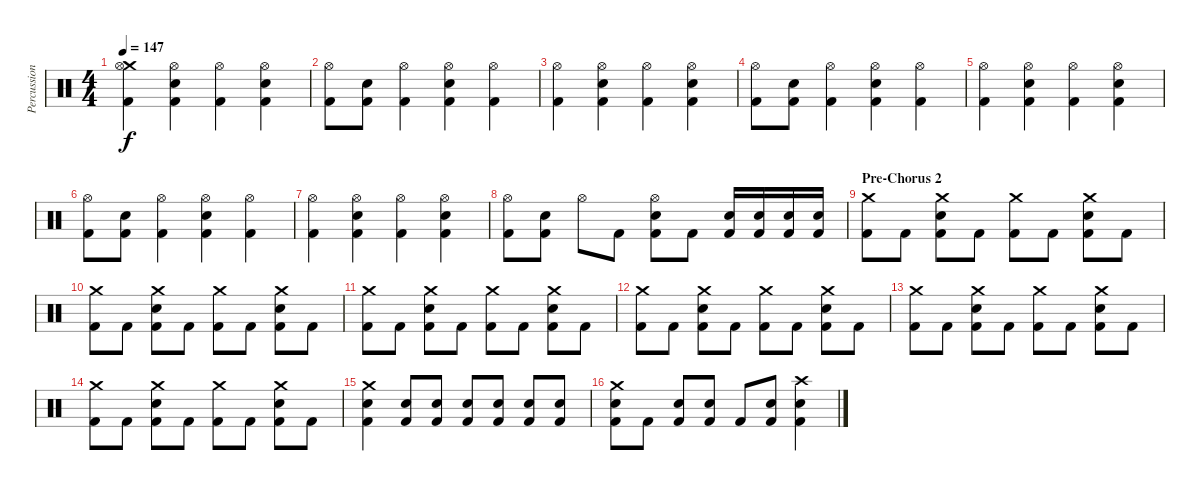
\track ("Percussions" "Percussion") {instrument percussion}
\staff {score}
\articulation defaults
\ts (4 4)
\tempo 147
\clef neutral
\ks c
("Crash medium (hit)" "Hi-Hat (open)" "Kick (hit) 2").4{dy f} ("Hi-Hat (open)" "Electric Snare (hit)" "Kick (hit) 2").4 ("Hi-Hat (open)" "Kick (hit) 2").4 ("Hi-Hat (open)" "Electric Snare (hit)" "Kick (hit) 2").4 |
("Hi-Hat (open)" "Kick (hit) 2").8 ("Electric Snare (hit)" "Kick (hit) 2").8 ("Hi-Hat (open)" "Kick (hit) 2").4 ("Hi-Hat (open)" "Electric Snare (hit)" "Kick (hit) 2").4 ("Hi-Hat (open)" "Kick (hit) 2").4 |
("Hi-Hat (open)" "Kick (hit) 2").4 ("Hi-Hat (open)" "Electric Snare (hit)" "Kick (hit) 2").4 ("Hi-Hat (open)" "Kick (hit) 2").4 ("Hi-Hat (open)" "Electric Snare (hit)" "Kick (hit) 2").4 |
("Hi-Hat (open)" "Kick (hit) 2").8 ("Electric Snare (hit)" "Kick (hit) 2").8 ("Hi-Hat (open)" "Kick (hit) 2").4 ("Hi-Hat (open)" "Electric Snare (hit)" "Kick (hit) 2").4 ("Hi-Hat (open)" "Kick (hit) 2").4 |
("Hi-Hat (open)" "Kick (hit) 2").4 ("Hi-Hat (open)" "Electric Snare (hit)" "Kick (hit) 2").4 ("Hi-Hat (open)" "Kick (hit) 2").4 ("Hi-Hat (open)" "Electric Snare (hit)" "Kick (hit) 2").4 |
("Hi-Hat (open)" "Kick (hit) 2").8 ("Electric Snare (hit)" "Kick (hit) 2").8 ("Hi-Hat (open)" "Kick (hit) 2").4 ("Hi-Hat (open)" "Electric Snare (hit)" "Kick (hit) 2").4 ("Hi-Hat (open)" "Kick (hit) 2").4 |
("Hi-Hat (open)" "Kick (hit) 2").4 ("Hi-Hat (open)" "Electric Snare (hit)" "Kick (hit) 2").4 ("Hi-Hat (open)" "Kick (hit) 2").4 ("Hi-Hat (open)" "Electric Snare (hit)" "Kick (hit) 2").4 |
("Hi-Hat (open)" "Kick (hit) 2").8 ("Electric Snare (hit)" "Kick (hit) 2").8 "Hi-Hat (open)".8 "Kick (hit) 2".8 ("Hi-Hat (open)" "Electric Snare (hit)" "Kick (hit) 2").8 "Kick (hit) 2".8 ("Electric Snare (hit)" "Kick (hit) 2").16 ("Electric Snare (hit)" "Kick (hit) 2").16 ("Electric Snare (hit)" "Kick (hit) 2").16 ("Electric Snare (hit)" "Kick (hit) 2").16 |
\section ("" "Pre-Chorus 2")
("Crash medium (hit)" "Kick (hit) 2").8 "Kick (hit) 2".8 ("Crash medium (hit)" "Electric Snare (hit)" "Kick (hit) 2").8 "Kick (hit) 2".8 ("Crash medium (hit)" "Kick (hit) 2").8 "Kick (hit) 2".8 ("Crash medium (hit)" "Electric Snare (hit)" "Kick (hit) 2").8 "Kick (hit) 2".8 |
("Crash medium (hit)" "Kick (hit) 2").8 "Kick (hit) 2".8 ("Crash medium (hit)" "Electric Snare (hit)" "Kick (hit) 2").8 "Kick (hit) 2".8 ("Crash medium (hit)" "Kick (hit) 2").8 "Kick (hit) 2".8 ("Crash medium (hit)" "Electric Snare (hit)" "Kick (hit) 2").8 "Kick (hit) 2".8 |
("Crash medium (hit)" "Kick (hit) 2").8 "Kick (hit) 2".8 ("Crash medium (hit)" "Electric Snare (hit)" "Kick (hit) 2").8 "Kick (hit) 2".8 ("Crash medium (hit)" "Kick (hit) 2").8 "Kick (hit) 2".8 ("Crash medium (hit)" "Electric Snare (hit)" "Kick (hit) 2").8 "Kick (hit) 2".8 |
("Crash medium (hit)" "Kick (hit) 2").8 "Kick (hit) 2".8 ("Crash medium (hit)" "Electric Snare (hit)" "Kick (hit) 2").8 "Kick (hit) 2".8 ("Crash medium (hit)" "Kick (hit) 2").8 "Kick (hit) 2".8 ("Crash medium (hit)" "Electric Snare (hit)" "Kick (hit) 2").8 "Kick (hit) 2".8 |
("Crash medium (hit)" "Kick (hit) 2").8 "Kick (hit) 2".8 ("Crash medium (hit)" "Electric Snare (hit)" "Kick (hit) 2").8 "Kick (hit) 2".8 ("Crash medium (hit)" "Kick (hit) 2").8 "Kick (hit) 2".8 ("Crash medium (hit)" "Electric Snare (hit)" "Kick (hit) 2").8 "Kick (hit) 2".8 |
("Crash medium (hit)" "Kick (hit) 2").8 "Kick (hit) 2".8 ("Crash medium (hit)" "Electric Snare (hit)" "Kick (hit) 2").8 "Kick (hit) 2".8 ("Crash medium (hit)" "Kick (hit) 2").8 "Kick (hit) 2".8 ("Crash medium (hit)" "Electric Snare (hit)" "Kick (hit) 2").8 "Kick (hit) 2".8 |
("Crash medium (hit)" "Electric Snare (hit)" "Kick (hit) 2").4 ("Electric Snare (hit)" "Kick (hit) 2").8 ("Electric Snare (hit)" "Kick (hit) 2").8 ("Electric Snare (hit)" "Kick (hit) 2").8 ("Electric Snare (hit)" "Kick (hit) 2").8 ("Electric Snare (hit)" "Kick (hit) 2").8 ("Electric Snare (hit)" "Kick (hit) 2").8 |
("Crash medium (hit)" "Electric Snare (hit)" "Kick (hit) 2").8 "Kick (hit) 2".8 ("Electric Snare (hit)" "Kick (hit) 2").8 ("Electric Snare (hit)" "Kick (hit) 2").8 "Kick (hit) 2".8 ("Electric Snare (hit)" "Kick (hit) 2").8 ("Crash high (hit)" "Electric Snare (hit)" "Kick (hit) 2").4
